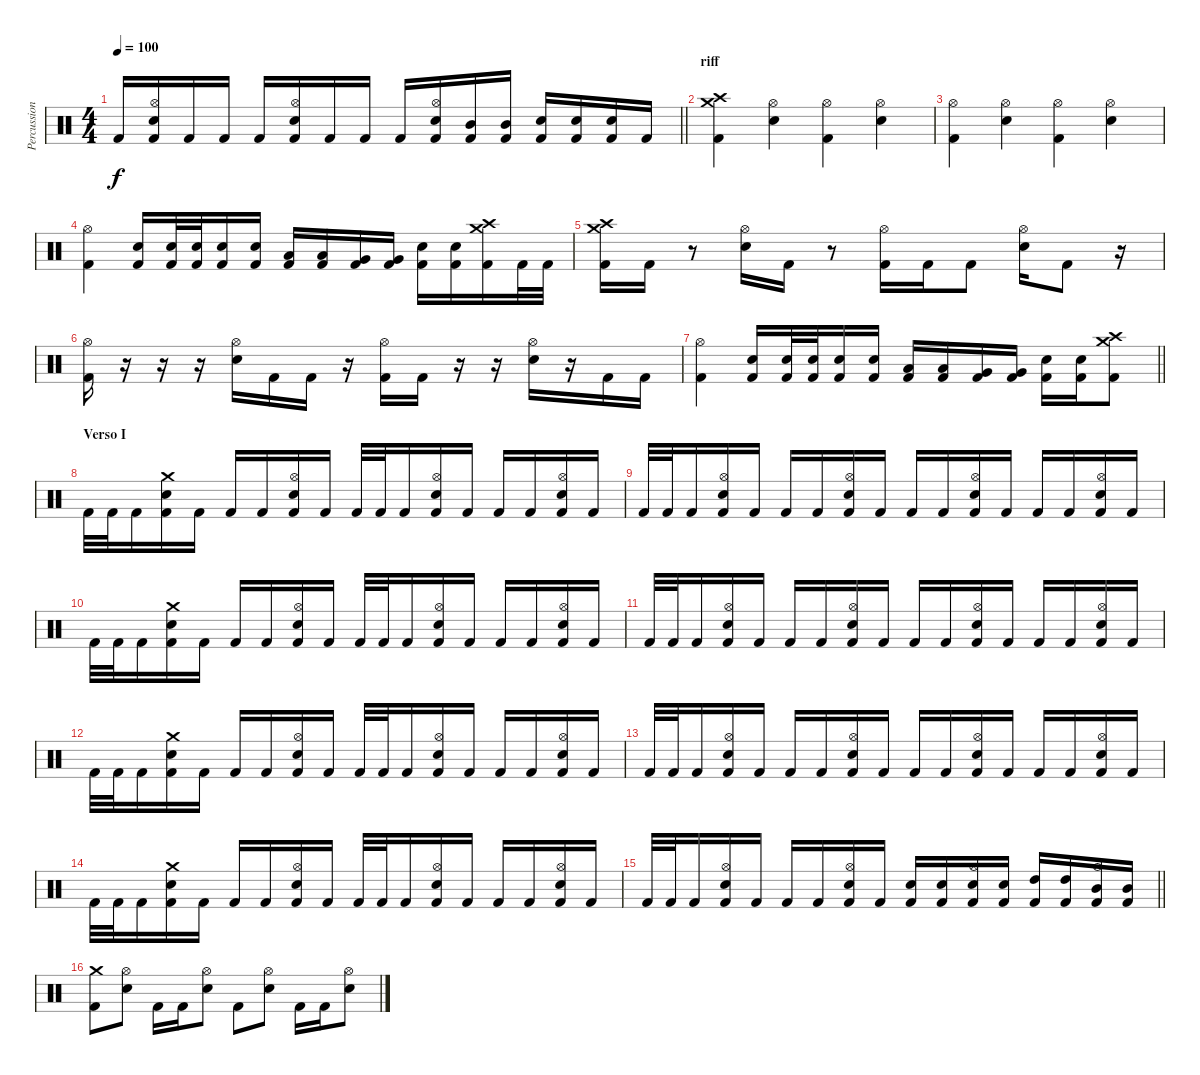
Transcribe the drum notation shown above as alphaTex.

\track ("Percussion" "Percussion") {instrument percussion}
\staff {score}
\articulation defaults
\ts (4 4)
\tempo 100
\clef neutral
\barLineRight lightlight
\ks c "Kick (hit) 2".16{dy f}
("Hi-Hat (open)" "Electric Snare (hit)" "Kick (hit) 2").16 "Kick (hit) 2".16 "Kick (hit) 2".16 "Kick (hit) 2".16 ("Hi-Hat (open)" "Electric Snare (hit)" "Kick (hit) 2").16 "Kick (hit) 2".16 "Kick (hit) 2".16 "Kick (hit) 2".16 ("Hi-Hat (open)" "Electric Snare (hit)" "Kick (hit) 2").16 ("Mid Tom (hit)" "Kick (hit) 2").16 ("Mid Tom (hit)" "Kick (hit) 2").16 ("Electric Snare (hit)" "Kick (hit) 2").16 ("Electric Snare (hit)" "Kick (hit) 2").16 ("Electric Snare (hit)" "Kick (hit) 2").16 "Kick (hit) 2".16 |
\section ("" "riff")
("Crash medium (hit)" "Crash high (hit)" "Kick (hit) 2").4 ("Hi-Hat (open)" "Electric Snare (hit)").4 ("Hi-Hat (open)" "Kick (hit) 2").4 ("Hi-Hat (open)" "Electric Snare (hit)").4 |
("Hi-Hat (open)" "Kick (hit) 2").4 ("Hi-Hat (open)" "Electric Snare (hit)").4 ("Hi-Hat (open)" "Kick (hit) 2").4 ("Hi-Hat (open)" "Electric Snare (hit)").4 |
("Hi-Hat (open)" "Kick (hit) 2").4 ("Electric Snare (hit)" "Kick (hit) 2").16 ("Electric Snare (hit)" "Kick (hit) 2").32 ("Electric Snare (hit)" "Kick (hit) 2").32 ("Electric Snare (hit)" "Kick (hit) 2").16 ("Electric Snare (hit)" "Kick (hit) 2").16 ("Low Tom (hit)" "Kick (hit) 2").16 ("Low Tom (hit)" "Kick (hit) 2").16 ("Very Low Tom (hit)" "Kick (hit) 2").16 ("Very Low Tom (hit)" "Kick (hit) 2").16 ("Electric Snare (hit)" "Kick (hit) 2").16 ("Electric Snare (hit)" "Kick (hit) 2").16 ("Crash medium (hit)" "Crash high (hit)" "Kick (hit) 2").16 "Kick (hit) 2".32 "Kick (hit) 2".32 |
("Crash medium (hit)" "Crash high (hit)" "Kick (hit) 2").16 "Kick (hit) 2".16 r.8 ("Hi-Hat (open)" "Electric Snare (hit)").16 "Kick (hit) 2".16 r.8 ("Hi-Hat (open)" "Kick (hit) 2").16 "Kick (hit) 2".16 "Kick (hit) 2".8 ("Hi-Hat (open)" "Electric Snare (hit)").16 "Kick (hit) 2".8 r.16 |
("Hi-Hat (open)" "Kick (hit) 2").16 r.16 r.16 r.16 ("Hi-Hat (open)" "Electric Snare (hit)").16 "Kick (hit) 2".16 "Kick (hit) 2".16 r.16 ("Hi-Hat (open)" "Kick (hit) 2").16 "Kick (hit) 2".16 r.16 r.16 ("Hi-Hat (open)" "Electric Snare (hit)").16 r.16 "Kick (hit) 2".16 "Kick (hit) 2".16 |
\barLineRight lightlight
("Hi-Hat (open)" "Kick (hit) 2").4 ("Electric Snare (hit)" "Kick (hit) 2").16 ("Electric Snare (hit)" "Kick (hit) 2").32 ("Electric Snare (hit)" "Kick (hit) 2").32 ("Electric Snare (hit)" "Kick (hit) 2").16 ("Electric Snare (hit)" "Kick (hit) 2").16 ("Low Tom (hit)" "Kick (hit) 2").16 ("Low Tom (hit)" "Kick (hit) 2").16 ("Very Low Tom (hit)" "Kick (hit) 2").16 ("Very Low Tom (hit)" "Kick (hit) 2").16 ("Electric Snare (hit)" "Kick (hit) 2").16 ("Electric Snare (hit)" "Kick (hit) 2").16 ("Crash medium (hit)" "Crash high (hit)" "Kick (hit) 2").8 |
\section ("" "Verso I")
"Kick (hit) 2".32 "Kick (hit) 2".32 "Kick (hit) 2".16 ("Crash medium (hit)" "Electric Snare (hit)" "Kick (hit) 2").16 "Kick (hit) 2".16 "Kick (hit) 2".16 "Kick (hit) 2".16 ("Hi-Hat (open)" "Electric Snare (hit)" "Kick (hit) 2").16 "Kick (hit) 2".16 "Kick (hit) 2".32 "Kick (hit) 2".32 "Kick (hit) 2".16 ("Hi-Hat (open)" "Electric Snare (hit)" "Kick (hit) 2").16 "Kick (hit) 2".16 "Kick (hit) 2".16 "Kick (hit) 2".16 ("Hi-Hat (open)" "Electric Snare (hit)" "Kick (hit) 2").16 "Kick (hit) 2".16 |
"Kick (hit) 2".32 "Kick (hit) 2".32 "Kick (hit) 2".16 ("Hi-Hat (open)" "Electric Snare (hit)" "Kick (hit) 2").16 "Kick (hit) 2".16 "Kick (hit) 2".16 "Kick (hit) 2".16 ("Hi-Hat (open)" "Electric Snare (hit)" "Kick (hit) 2").16 "Kick (hit) 2".16 "Kick (hit) 2".16 "Kick (hit) 2".16 ("Hi-Hat (open)" "Electric Snare (hit)" "Kick (hit) 2").16 "Kick (hit) 2".16 "Kick (hit) 2".16 "Kick (hit) 2".16 ("Hi-Hat (open)" "Electric Snare (hit)" "Kick (hit) 2").16 "Kick (hit) 2".16 |
"Kick (hit) 2".32 "Kick (hit) 2".32 "Kick (hit) 2".16 ("Crash medium (hit)" "Electric Snare (hit)" "Kick (hit) 2").16 "Kick (hit) 2".16 "Kick (hit) 2".16 "Kick (hit) 2".16 ("Hi-Hat (open)" "Electric Snare (hit)" "Kick (hit) 2").16 "Kick (hit) 2".16 "Kick (hit) 2".32 "Kick (hit) 2".32 "Kick (hit) 2".16 ("Hi-Hat (open)" "Electric Snare (hit)" "Kick (hit) 2").16 "Kick (hit) 2".16 "Kick (hit) 2".16 "Kick (hit) 2".16 ("Hi-Hat (open)" "Electric Snare (hit)" "Kick (hit) 2").16 "Kick (hit) 2".16 |
"Kick (hit) 2".32 "Kick (hit) 2".32 "Kick (hit) 2".16 ("Hi-Hat (open)" "Electric Snare (hit)" "Kick (hit) 2").16 "Kick (hit) 2".16 "Kick (hit) 2".16 "Kick (hit) 2".16 ("Hi-Hat (open)" "Electric Snare (hit)" "Kick (hit) 2").16 "Kick (hit) 2".16 "Kick (hit) 2".16 "Kick (hit) 2".16 ("Hi-Hat (open)" "Electric Snare (hit)" "Kick (hit) 2").16 "Kick (hit) 2".16 "Kick (hit) 2".16 "Kick (hit) 2".16 ("Hi-Hat (open)" "Electric Snare (hit)" "Kick (hit) 2").16 "Kick (hit) 2".16 |
"Kick (hit) 2".32 "Kick (hit) 2".32 "Kick (hit) 2".16 ("Crash medium (hit)" "Electric Snare (hit)" "Kick (hit) 2").16 "Kick (hit) 2".16 "Kick (hit) 2".16 "Kick (hit) 2".16 ("Hi-Hat (open)" "Electric Snare (hit)" "Kick (hit) 2").16 "Kick (hit) 2".16 "Kick (hit) 2".32 "Kick (hit) 2".32 "Kick (hit) 2".16 ("Hi-Hat (open)" "Electric Snare (hit)" "Kick (hit) 2").16 "Kick (hit) 2".16 "Kick (hit) 2".16 "Kick (hit) 2".16 ("Hi-Hat (open)" "Electric Snare (hit)" "Kick (hit) 2").16 "Kick (hit) 2".16 |
"Kick (hit) 2".32 "Kick (hit) 2".32 "Kick (hit) 2".16 ("Hi-Hat (open)" "Electric Snare (hit)" "Kick (hit) 2").16 "Kick (hit) 2".16 "Kick (hit) 2".16 "Kick (hit) 2".16 ("Hi-Hat (open)" "Electric Snare (hit)" "Kick (hit) 2").16 "Kick (hit) 2".16 "Kick (hit) 2".16 "Kick (hit) 2".16 ("Hi-Hat (open)" "Electric Snare (hit)" "Kick (hit) 2").16 "Kick (hit) 2".16 "Kick (hit) 2".16 "Kick (hit) 2".16 ("Hi-Hat (open)" "Electric Snare (hit)" "Kick (hit) 2").16 "Kick (hit) 2".16 |
"Kick (hit) 2".32 "Kick (hit) 2".32 "Kick (hit) 2".16 ("Crash medium (hit)" "Electric Snare (hit)" "Kick (hit) 2").16 "Kick (hit) 2".16 "Kick (hit) 2".16 "Kick (hit) 2".16 ("Hi-Hat (open)" "Electric Snare (hit)" "Kick (hit) 2").16 "Kick (hit) 2".16 "Kick (hit) 2".32 "Kick (hit) 2".32 "Kick (hit) 2".16 ("Hi-Hat (open)" "Electric Snare (hit)" "Kick (hit) 2").16 "Kick (hit) 2".16 "Kick (hit) 2".16 "Kick (hit) 2".16 ("Hi-Hat (open)" "Electric Snare (hit)" "Kick (hit) 2").16 "Kick (hit) 2".16 |
\barLineRight lightlight "Kick (hit) 2".32 "Kick (hit) 2".32 "Kick (hit) 2".16
("Hi-Hat (open)" "Electric Snare (hit)" "Kick (hit) 2").16 "Kick (hit) 2".16 "Kick (hit) 2".16 "Kick (hit) 2".16 ("Hi-Hat (open)" "Electric Snare (hit)" "Kick (hit) 2").16 "Kick (hit) 2".16 ("Electric Snare (hit)" "Kick (hit) 2").16 ("Electric Snare (hit)" "Kick (hit) 2").16 ("Hi-Hat (open)" "Electric Snare (hit)" "Kick (hit) 2").16 ("Electric Snare (hit)" "Kick (hit) 2").16 ("High Tom (hit)" "Kick (hit) 2").16 ("High Tom (hit)" "Kick (hit) 2").16 ("Hi-Hat (open)" "Mid Tom (hit)" "Kick (hit) 2").16 ("Mid Tom (hit)" "Kick (hit) 2").16 |
("Crash medium (hit)" "Kick (hit) 2").8 ("Hi-Hat (open)" "Electric Snare (hit)").8 "Kick (hit) 2".16 "Kick (hit) 2".16 ("Hi-Hat (open)" "Electric Snare (hit)").8 "Kick (hit) 2".8 ("Hi-Hat (open)" "Electric Snare (hit)").8 "Kick (hit) 2".16 "Kick (hit) 2".16 ("Hi-Hat (open)" "Electric Snare (hit)").8
